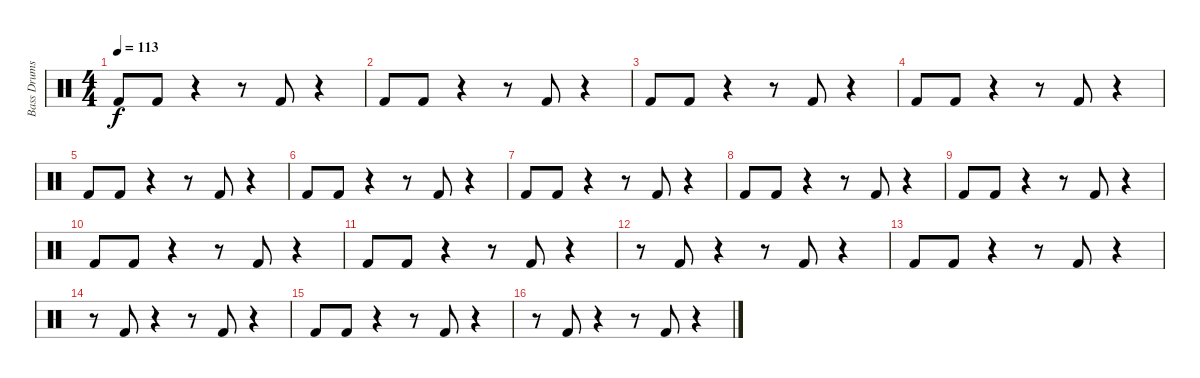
\track ("Bass Drums" "Bass Drums") {instrument percussion}
\staff {score}
\articulation defaults
\ts (4 4)
\tempo 113
\clef neutral
\ks c "Kick (hit) 2".8{dy f} "Kick (hit) 2".8
r.4 r.8 "Kick (hit) 2".8 r.4 |
"Kick (hit) 2".8 "Kick (hit) 2".8 r.4 r.8 "Kick (hit) 2".8 r.4 |
"Kick (hit) 2".8 "Kick (hit) 2".8 r.4 r.8 "Kick (hit) 2".8 r.4 |
"Kick (hit) 2".8 "Kick (hit) 2".8 r.4 r.8 "Kick (hit) 2".8 r.4 |
"Kick (hit) 2".8 "Kick (hit) 2".8 r.4 r.8 "Kick (hit) 2".8 r.4 |
"Kick (hit) 2".8 "Kick (hit) 2".8 r.4 r.8 "Kick (hit) 2".8 r.4 |
"Kick (hit) 2".8 "Kick (hit) 2".8 r.4 r.8 "Kick (hit) 2".8 r.4 |
"Kick (hit) 2".8 "Kick (hit) 2".8 r.4 r.8 "Kick (hit) 2".8 r.4 |
"Kick (hit) 2".8 "Kick (hit) 2".8 r.4 r.8 "Kick (hit) 2".8 r.4 |
"Kick (hit) 2".8 "Kick (hit) 2".8 r.4 r.8 "Kick (hit) 2".8 r.4 |
"Kick (hit) 2".8 "Kick (hit) 2".8 r.4 r.8 "Kick (hit) 2".8 r.4 |
r.8 "Kick (hit) 2".8 r.4 r.8 "Kick (hit) 2".8 r.4 |
"Kick (hit) 2".8 "Kick (hit) 2".8 r.4 r.8 "Kick (hit) 2".8 r.4 |
r.8 "Kick (hit) 2".8 r.4 r.8 "Kick (hit) 2".8 r.4 |
"Kick (hit) 2".8 "Kick (hit) 2".8 r.4 r.8 "Kick (hit) 2".8 r.4 |
r.8 "Kick (hit) 2".8 r.4 r.8 "Kick (hit) 2".8 r.4
